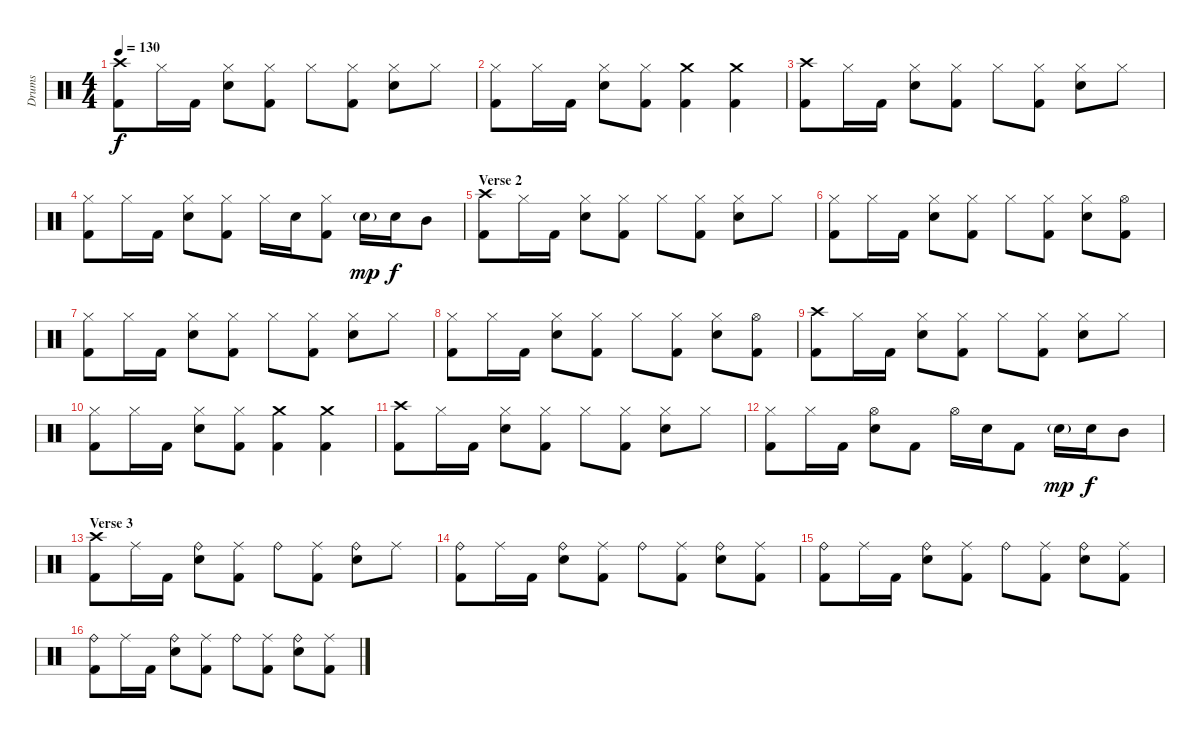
\track ("Drums" "Drums") {instrument percussion}
\staff {score}
\articulation defaults
\ts (4 4)
\tempo 130
\clef neutral
\ks c
("Crash high (hit)" "Kick (hit) 2").8{dy f} "Hi-Hat (closed)".16 "Kick (hit) 2".16 ("Hi-Hat (closed)" "Electric Snare (hit)").8 ("Hi-Hat (closed)" "Kick (hit) 2").8 "Hi-Hat (closed)".8 ("Hi-Hat (closed)" "Kick (hit) 2").8 ("Hi-Hat (closed)" "Electric Snare (hit)").8 "Hi-Hat (closed)".8 |
("Hi-Hat (closed)" "Kick (hit) 2").8 "Hi-Hat (closed)".16 "Kick (hit) 2".16 ("Hi-Hat (closed)" "Electric Snare (hit)").8 ("Hi-Hat (closed)" "Kick (hit) 2").8 ("Crash medium (hit)" "Kick (hit) 2").4 ("Crash medium (hit)" "Kick (hit) 2").4 |
("Crash high (hit)" "Kick (hit) 2").8 "Hi-Hat (closed)".16 "Kick (hit) 2".16 ("Hi-Hat (closed)" "Electric Snare (hit)").8 ("Hi-Hat (closed)" "Kick (hit) 2").8 "Hi-Hat (closed)".8 ("Hi-Hat (closed)" "Kick (hit) 2").8 ("Hi-Hat (closed)" "Electric Snare (hit)").8 "Hi-Hat (closed)".8 |
("Hi-Hat (closed)" "Kick (hit) 2").8 "Hi-Hat (closed)".16 "Kick (hit) 2".16 ("Hi-Hat (closed)" "Electric Snare (hit)").8 ("Hi-Hat (closed)" "Kick (hit) 2").8 "Hi-Hat (closed)".16 "Electric Snare (hit)".16 ("Hi-Hat (closed)" "Kick (hit) 2").8 "Electric Snare (hit)"{g}.16{dy mp} "Electric Snare (hit)".16{dy f} "Mid Tom (hit)".8 |
\section ("" "Verse 2")
("Crash high (hit)" "Kick (hit) 2").8 "Hi-Hat (closed)".16 "Kick (hit) 2".16 ("Hi-Hat (closed)" "Electric Snare (hit)").8 ("Hi-Hat (closed)" "Kick (hit) 2").8 "Hi-Hat (closed)".8 ("Hi-Hat (closed)" "Kick (hit) 2").8 ("Hi-Hat (closed)" "Electric Snare (hit)").8 "Hi-Hat (closed)".8 |
("Hi-Hat (closed)" "Kick (hit) 2").8 "Hi-Hat (closed)".16 "Kick (hit) 2".16 ("Hi-Hat (closed)" "Electric Snare (hit)").8 ("Hi-Hat (closed)" "Kick (hit) 2").8 "Hi-Hat (closed)".8 ("Hi-Hat (closed)" "Kick (hit) 2").8 ("Hi-Hat (closed)" "Electric Snare (hit)").8 ("Hi-Hat (open)" "Kick (hit) 2").8 |
("Hi-Hat (closed)" "Kick (hit) 2").8 "Hi-Hat (closed)".16 "Kick (hit) 2".16 ("Hi-Hat (closed)" "Electric Snare (hit)").8 ("Hi-Hat (closed)" "Kick (hit) 2").8 "Hi-Hat (closed)".8 ("Hi-Hat (closed)" "Kick (hit) 2").8 ("Hi-Hat (closed)" "Electric Snare (hit)").8 "Hi-Hat (closed)".8 |
("Hi-Hat (closed)" "Kick (hit) 2").8 "Hi-Hat (closed)".16 "Kick (hit) 2".16 ("Hi-Hat (closed)" "Electric Snare (hit)").8 ("Hi-Hat (closed)" "Kick (hit) 2").8 "Hi-Hat (closed)".8 ("Hi-Hat (closed)" "Kick (hit) 2").8 ("Hi-Hat (closed)" "Electric Snare (hit)").8 ("Hi-Hat (open)" "Kick (hit) 2").8 |
("Crash high (hit)" "Kick (hit) 2").8 "Hi-Hat (closed)".16 "Kick (hit) 2".16 ("Hi-Hat (closed)" "Electric Snare (hit)").8 ("Hi-Hat (closed)" "Kick (hit) 2").8 "Hi-Hat (closed)".8 ("Hi-Hat (closed)" "Kick (hit) 2").8 ("Hi-Hat (closed)" "Electric Snare (hit)").8 "Hi-Hat (closed)".8 |
("Hi-Hat (closed)" "Kick (hit) 2").8 "Hi-Hat (closed)".16 "Kick (hit) 2".16 ("Hi-Hat (closed)" "Electric Snare (hit)").8 ("Hi-Hat (closed)" "Kick (hit) 2").8 ("Crash medium (hit)" "Kick (hit) 2").4 ("Crash medium (hit)" "Kick (hit) 2").4 |
("Crash high (hit)" "Kick (hit) 2").8 "Hi-Hat (closed)".16 "Kick (hit) 2".16 ("Hi-Hat (closed)" "Electric Snare (hit)").8 ("Hi-Hat (closed)" "Kick (hit) 2").8 "Hi-Hat (closed)".8 ("Hi-Hat (closed)" "Kick (hit) 2").8 ("Hi-Hat (closed)" "Electric Snare (hit)").8 "Hi-Hat (closed)".8 |
("Hi-Hat (closed)" "Kick (hit) 2").8 "Hi-Hat (closed)".16 "Kick (hit) 2".16 ("Hi-Hat (open)" "Electric Snare (hit)").8 "Kick (hit) 2".8 "Hi-Hat (open)".16 "Electric Snare (hit)".16 "Kick (hit) 2".8 "Electric Snare (hit)"{g}.16{dy mp} "Electric Snare (hit)".16{dy f} "Mid Tom (hit)".8 |
\section ("" "Verse 3")
("Crash high (hit)" "Kick (hit) 2").8 "Ride (middle)".16 "Kick (hit) 2".16 ("Ride (bell)" "Electric Snare (hit)").8 ("Ride (middle)" "Kick (hit) 2").8 "Ride (bell)".8 ("Ride (middle)" "Kick (hit) 2").8 ("Ride (bell)" "Electric Snare (hit)").8 "Ride (middle)".8 |
("Ride (bell)" "Kick (hit) 2").8 "Ride (middle)".16 "Kick (hit) 2".16 ("Ride (bell)" "Electric Snare (hit)").8 ("Ride (middle)" "Kick (hit) 2").8 "Ride (bell)".8 ("Ride (middle)" "Kick (hit) 2").8 ("Ride (bell)" "Electric Snare (hit)").8 ("Ride (middle)" "Kick (hit) 2").8 |
("Ride (bell)" "Kick (hit) 2").8 "Ride (middle)".16 "Kick (hit) 2".16 ("Ride (bell)" "Electric Snare (hit)").8 ("Ride (middle)" "Kick (hit) 2").8 "Ride (bell)".8 ("Ride (middle)" "Kick (hit) 2").8 ("Ride (bell)" "Electric Snare (hit)").8 ("Ride (middle)" "Kick (hit) 2").8 |
("Ride (bell)" "Kick (hit) 2").8 "Ride (middle)".16 "Kick (hit) 2".16 ("Ride (bell)" "Electric Snare (hit)").8 ("Ride (middle)" "Kick (hit) 2").8 "Ride (bell)".8 ("Ride (middle)" "Kick (hit) 2").8 ("Ride (bell)" "Electric Snare (hit)").8 ("Ride (middle)" "Kick (hit) 2").8
